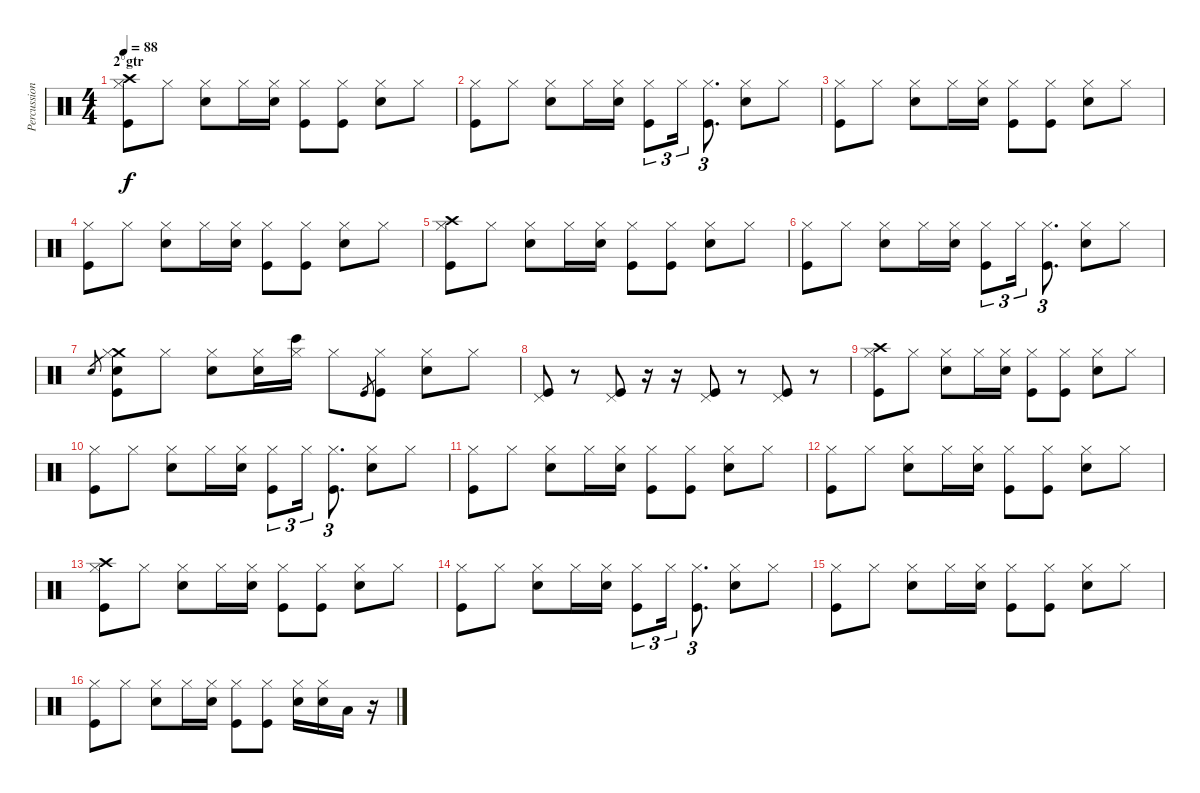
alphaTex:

\track ("Percussions" "Percussion") {instrument percussion}
\staff {score}
\articulation defaults
\ts (4 4)
\section ("" "2°gtr")
\tempo 88
\clef neutral
\ks c
("Crash high (hit)" "Hi-Hat (closed)" "Kick (hit)").8{dy f} "Hi-Hat (closed)".8 ("Electric Snare (hit)" "Hi-Hat (closed)").8 "Hi-Hat (closed)".16 ("Electric Snare (hit)" "Hi-Hat (closed)").16 ("Hi-Hat (closed)" "Kick (hit)").8 ("Hi-Hat (closed)" "Kick (hit)").8 ("Electric Snare (hit)" "Hi-Hat (closed)").8 "Hi-Hat (closed)".8 |
("Hi-Hat (closed)" "Kick (hit)").8 "Hi-Hat (closed)".8 ("Electric Snare (hit)" "Hi-Hat (closed)").8 "Hi-Hat (closed)".16 ("Electric Snare (hit)" "Hi-Hat (closed)").16 ("Hi-Hat (closed)" "Kick (hit)").8{tu (3 2)} "Hi-Hat (closed)".16{tu (3 2)} ("Hi-Hat (closed)" "Kick (hit)").8{d tu (3 2)} ("Electric Snare (hit)" "Hi-Hat (closed)").8 "Hi-Hat (closed)".8 |
("Hi-Hat (closed)" "Kick (hit)").8 "Hi-Hat (closed)".8 ("Electric Snare (hit)" "Hi-Hat (closed)").8 "Hi-Hat (closed)".16 ("Electric Snare (hit)" "Hi-Hat (closed)").16 ("Hi-Hat (closed)" "Kick (hit)").8 ("Hi-Hat (closed)" "Kick (hit)").8 ("Electric Snare (hit)" "Hi-Hat (closed)").8 "Hi-Hat (closed)".8 |
("Hi-Hat (closed)" "Kick (hit)").8 "Hi-Hat (closed)".8 ("Electric Snare (hit)" "Hi-Hat (closed)").8 "Hi-Hat (closed)".16 ("Electric Snare (hit)" "Hi-Hat (closed)").16 ("Hi-Hat (closed)" "Kick (hit)").8 ("Hi-Hat (closed)" "Kick (hit)").8 ("Electric Snare (hit)" "Hi-Hat (closed)").8 "Hi-Hat (closed)".8 |
("Crash high (hit)" "Hi-Hat (closed)" "Kick (hit)").8 "Hi-Hat (closed)".8 ("Electric Snare (hit)" "Hi-Hat (closed)").8 "Hi-Hat (closed)".16 ("Electric Snare (hit)" "Hi-Hat (closed)").16 ("Hi-Hat (closed)" "Kick (hit)").8 ("Hi-Hat (closed)" "Kick (hit)").8 ("Electric Snare (hit)" "Hi-Hat (closed)").8 "Hi-Hat (closed)".8 |
("Hi-Hat (closed)" "Kick (hit)").8 "Hi-Hat (closed)".8 ("Electric Snare (hit)" "Hi-Hat (closed)").8 "Hi-Hat (closed)".16 ("Electric Snare (hit)" "Hi-Hat (closed)").16 ("Hi-Hat (closed)" "Kick (hit)").8{tu (3 2)} "Hi-Hat (closed)".16{tu (3 2)} ("Hi-Hat (closed)" "Kick (hit)").8{d tu (3 2)} ("Electric Snare (hit)" "Hi-Hat (closed)").8 "Hi-Hat (closed)".8 |
"Electric Snare (hit)".8{gr} ("Crash medium (hit)" "Hi-Hat (closed)" "Electric Snare (hit)" "Kick (hit)").8 "Hi-Hat (closed)".8 ("Electric Snare (hit)" "Hi-Hat (closed)").8 ("Electric Snare (hit)" "Hi-Hat (closed)").16 ("Bongo High (hit)" "Hi-Hat (closed)").16 "Hi-Hat (closed)".8 "Kick (hit)".8{gr} ("Hi-Hat (closed)" "Kick (hit)").8 ("Electric Snare (hit)" "Hi-Hat (closed)").8 "Hi-Hat (closed)".8 |
("Pedal Hi-Hat (hit)" "Kick (hit)").8{volume 15} r.8 ("Pedal Hi-Hat (hit)" "Kick (hit)").8 r.16 r.16 ("Pedal Hi-Hat (hit)" "Kick (hit)").8 r.8 ("Pedal Hi-Hat (hit)" "Kick (hit)").8 r.8 |
("Crash high (hit)" "Hi-Hat (closed)" "Kick (hit)").8{volume 9} "Hi-Hat (closed)".8 ("Electric Snare (hit)" "Hi-Hat (closed)").8 "Hi-Hat (closed)".16 ("Electric Snare (hit)" "Hi-Hat (closed)").16 ("Hi-Hat (closed)" "Kick (hit)").8 ("Hi-Hat (closed)" "Kick (hit)").8 ("Electric Snare (hit)" "Hi-Hat (closed)").8 "Hi-Hat (closed)".8 |
("Hi-Hat (closed)" "Kick (hit)").8 "Hi-Hat (closed)".8 ("Electric Snare (hit)" "Hi-Hat (closed)").8 "Hi-Hat (closed)".16 ("Electric Snare (hit)" "Hi-Hat (closed)").16 ("Hi-Hat (closed)" "Kick (hit)").8{tu (3 2)} "Hi-Hat (closed)".16{tu (3 2)} ("Hi-Hat (closed)" "Kick (hit)").8{d tu (3 2)} ("Electric Snare (hit)" "Hi-Hat (closed)").8 "Hi-Hat (closed)".8 |
("Hi-Hat (closed)" "Kick (hit)").8 "Hi-Hat (closed)".8 ("Electric Snare (hit)" "Hi-Hat (closed)").8 "Hi-Hat (closed)".16 ("Electric Snare (hit)" "Hi-Hat (closed)").16 ("Hi-Hat (closed)" "Kick (hit)").8 ("Hi-Hat (closed)" "Kick (hit)").8 ("Electric Snare (hit)" "Hi-Hat (closed)").8 "Hi-Hat (closed)".8 |
("Hi-Hat (closed)" "Kick (hit)").8 "Hi-Hat (closed)".8 ("Electric Snare (hit)" "Hi-Hat (closed)").8 "Hi-Hat (closed)".16 ("Electric Snare (hit)" "Hi-Hat (closed)").16 ("Hi-Hat (closed)" "Kick (hit)").8 ("Hi-Hat (closed)" "Kick (hit)").8 ("Electric Snare (hit)" "Hi-Hat (closed)").8 "Hi-Hat (closed)".8 |
("Crash high (hit)" "Hi-Hat (closed)" "Kick (hit)").8 "Hi-Hat (closed)".8 ("Electric Snare (hit)" "Hi-Hat (closed)").8 "Hi-Hat (closed)".16 ("Electric Snare (hit)" "Hi-Hat (closed)").16 ("Hi-Hat (closed)" "Kick (hit)").8 ("Hi-Hat (closed)" "Kick (hit)").8 ("Electric Snare (hit)" "Hi-Hat (closed)").8 "Hi-Hat (closed)".8 |
("Hi-Hat (closed)" "Kick (hit)").8 "Hi-Hat (closed)".8 ("Electric Snare (hit)" "Hi-Hat (closed)").8 "Hi-Hat (closed)".16 ("Electric Snare (hit)" "Hi-Hat (closed)").16 ("Hi-Hat (closed)" "Kick (hit)").8{tu (3 2)} "Hi-Hat (closed)".16{tu (3 2)} ("Hi-Hat (closed)" "Kick (hit)").8{d tu (3 2)} ("Electric Snare (hit)" "Hi-Hat (closed)").8 "Hi-Hat (closed)".8 |
("Hi-Hat (closed)" "Kick (hit)").8 "Hi-Hat (closed)".8 ("Electric Snare (hit)" "Hi-Hat (closed)").8 "Hi-Hat (closed)".16 ("Electric Snare (hit)" "Hi-Hat (closed)").16 ("Hi-Hat (closed)" "Kick (hit)").8 ("Hi-Hat (closed)" "Kick (hit)").8 ("Electric Snare (hit)" "Hi-Hat (closed)").8 "Hi-Hat (closed)".8 |
("Hi-Hat (closed)" "Kick (hit)").8 "Hi-Hat (closed)".8 ("Electric Snare (hit)" "Hi-Hat (closed)").8 "Hi-Hat (closed)".16 ("Electric Snare (hit)" "Hi-Hat (closed)").16 ("Hi-Hat (closed)" "Kick (hit)").8 ("Hi-Hat (closed)" "Kick (hit)").8 ("Electric Snare (hit)" "Hi-Hat (closed)").16 ("Electric Snare (hit)" "Hi-Hat (closed)").16 "Low Tom (hit)".16 r.16
